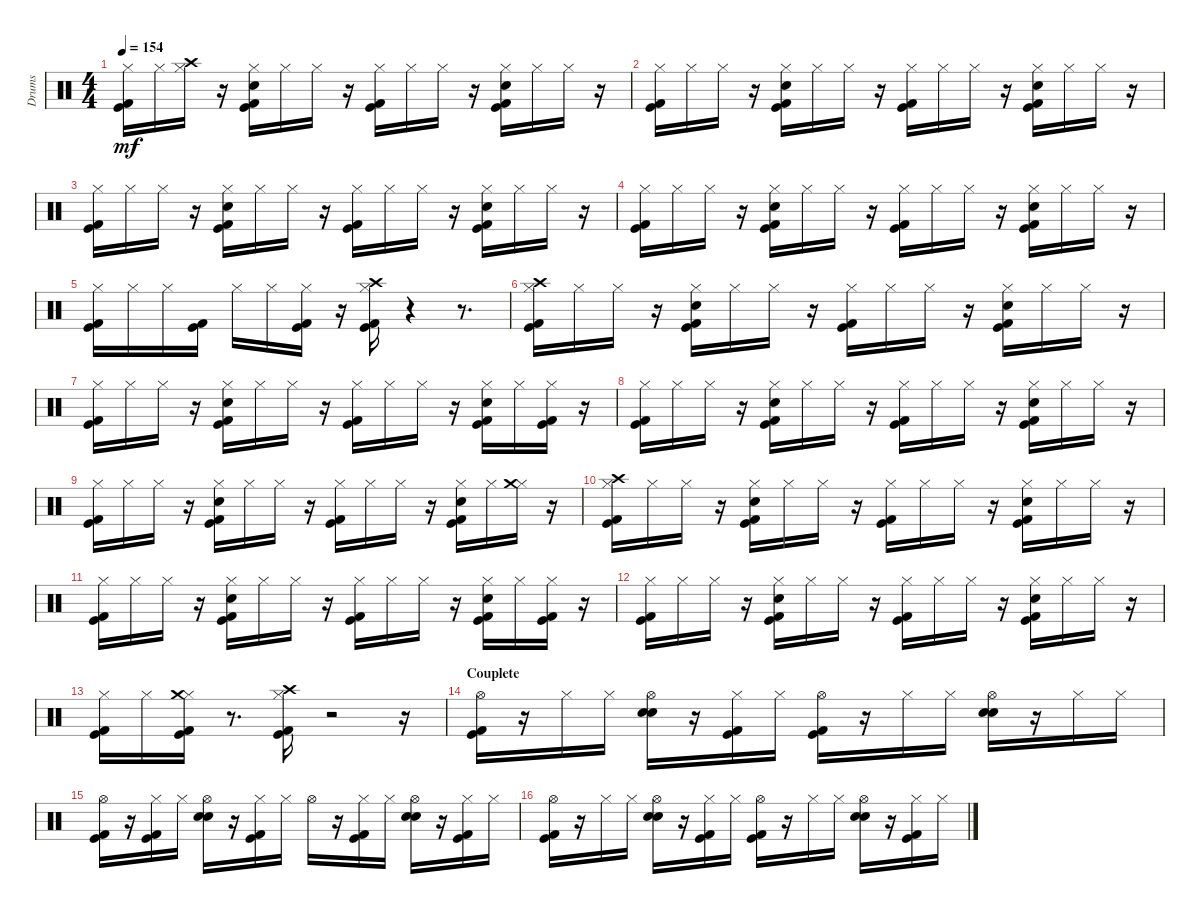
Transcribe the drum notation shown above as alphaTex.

\track ("Drums" "Drums") {instrument percussion}
\staff {score}
\articulation defaults
\ts (4 4)
\tempo 154
\clef neutral
\ks c
("Kick (hit)" "Kick (hit) 2" "Hi-Hat (closed)").16{dy mf} "Hi-Hat (closed)".16 ("Hi-Hat (closed)" "Crash high (hit)").16 r.16 ("Kick (hit)" "Kick (hit) 2" "Electric Snare (hit)" "Hi-Hat (closed)").16 "Hi-Hat (closed)".16 "Hi-Hat (closed)".16 r.16 ("Kick (hit)" "Kick (hit) 2" "Hi-Hat (closed)").16 "Hi-Hat (closed)".16 "Hi-Hat (closed)".16 r.16 ("Kick (hit)" "Kick (hit) 2" "Electric Snare (hit)" "Hi-Hat (closed)").16 "Hi-Hat (closed)".16 "Hi-Hat (closed)".16 r.16 |
("Kick (hit)" "Kick (hit) 2" "Hi-Hat (closed)").16 "Hi-Hat (closed)".16 "Hi-Hat (closed)".16 r.16 ("Kick (hit)" "Kick (hit) 2" "Electric Snare (hit)" "Hi-Hat (closed)").16 "Hi-Hat (closed)".16 "Hi-Hat (closed)".16 r.16 ("Kick (hit)" "Kick (hit) 2" "Hi-Hat (closed)").16 "Hi-Hat (closed)".16 "Hi-Hat (closed)".16 r.16 ("Kick (hit)" "Kick (hit) 2" "Electric Snare (hit)" "Hi-Hat (closed)").16 "Hi-Hat (closed)".16 "Hi-Hat (closed)".16 r.16 |
("Kick (hit)" "Kick (hit) 2" "Hi-Hat (closed)").16 "Hi-Hat (closed)".16 "Hi-Hat (closed)".16 r.16 ("Kick (hit)" "Kick (hit) 2" "Electric Snare (hit)" "Hi-Hat (closed)").16 "Hi-Hat (closed)".16 "Hi-Hat (closed)".16 r.16 ("Kick (hit)" "Kick (hit) 2" "Hi-Hat (closed)").16 "Hi-Hat (closed)".16 "Hi-Hat (closed)".16 r.16 ("Kick (hit)" "Kick (hit) 2" "Electric Snare (hit)" "Hi-Hat (closed)").16 "Hi-Hat (closed)".16 "Hi-Hat (closed)".16 r.16 |
("Kick (hit)" "Kick (hit) 2" "Hi-Hat (closed)").16 "Hi-Hat (closed)".16 "Hi-Hat (closed)".16 r.16 ("Kick (hit)" "Kick (hit) 2" "Electric Snare (hit)" "Hi-Hat (closed)").16 "Hi-Hat (closed)".16 "Hi-Hat (closed)".16 r.16 ("Kick (hit)" "Kick (hit) 2" "Hi-Hat (closed)").16 "Hi-Hat (closed)".16 "Hi-Hat (closed)".16 r.16 ("Kick (hit)" "Kick (hit) 2" "Electric Snare (hit)" "Hi-Hat (closed)").16 "Hi-Hat (closed)".16 "Hi-Hat (closed)".16 r.16 |
("Kick (hit)" "Kick (hit) 2" "Hi-Hat (closed)").16 "Hi-Hat (closed)".16 "Hi-Hat (closed)".16 ("Kick (hit)" "Kick (hit) 2").16 "Hi-Hat (closed)".16 "Hi-Hat (closed)".16 ("Kick (hit)" "Kick (hit) 2" "Hi-Hat (closed)").16 r.16 ("Kick (hit)" "Kick (hit) 2" "Hi-Hat (closed)" "Crash high (hit)").16 r.4 r.8{d} |
("Kick (hit)" "Kick (hit) 2" "Hi-Hat (closed)" "Crash high (hit)").16 "Hi-Hat (closed)".16 "Hi-Hat (closed)".16 r.16 ("Kick (hit)" "Kick (hit) 2" "Electric Snare (hit)" "Hi-Hat (closed)").16 "Hi-Hat (closed)".16 "Hi-Hat (closed)".16 r.16 ("Kick (hit)" "Kick (hit) 2" "Hi-Hat (closed)").16 "Hi-Hat (closed)".16 "Hi-Hat (closed)".16 r.16 ("Kick (hit)" "Kick (hit) 2" "Electric Snare (hit)" "Hi-Hat (closed)").16 "Hi-Hat (closed)".16 "Hi-Hat (closed)".16 r.16 |
("Kick (hit)" "Kick (hit) 2" "Hi-Hat (closed)").16 "Hi-Hat (closed)".16 "Hi-Hat (closed)".16 r.16 ("Kick (hit)" "Kick (hit) 2" "Electric Snare (hit)" "Hi-Hat (closed)").16 "Hi-Hat (closed)".16 "Hi-Hat (closed)".16 r.16 ("Kick (hit)" "Kick (hit) 2" "Hi-Hat (closed)").16 "Hi-Hat (closed)".16 "Hi-Hat (closed)".16 r.16 ("Kick (hit)" "Kick (hit) 2" "Electric Snare (hit)" "Hi-Hat (closed)").16 "Hi-Hat (closed)".16 ("Kick (hit)" "Kick (hit) 2" "Hi-Hat (closed)").16 r.16 |
("Kick (hit)" "Kick (hit) 2" "Hi-Hat (closed)").16 "Hi-Hat (closed)".16 "Hi-Hat (closed)".16 r.16 ("Kick (hit)" "Kick (hit) 2" "Electric Snare (hit)" "Hi-Hat (closed)").16 "Hi-Hat (closed)".16 "Hi-Hat (closed)".16 r.16 ("Kick (hit)" "Kick (hit) 2" "Hi-Hat (closed)").16 "Hi-Hat (closed)".16 "Hi-Hat (closed)".16 r.16 ("Kick (hit)" "Kick (hit) 2" "Electric Snare (hit)" "Hi-Hat (closed)").16 "Hi-Hat (closed)".16 "Hi-Hat (closed)".16 r.16 |
("Kick (hit)" "Kick (hit) 2" "Hi-Hat (closed)").16 "Hi-Hat (closed)".16 "Hi-Hat (closed)".16 r.16 ("Kick (hit)" "Kick (hit) 2" "Electric Snare (hit)" "Hi-Hat (closed)").16 "Hi-Hat (closed)".16 "Hi-Hat (closed)".16 r.16 ("Kick (hit)" "Kick (hit) 2" "Hi-Hat (closed)").16 "Hi-Hat (closed)".16 "Hi-Hat (closed)".16 r.16 ("Kick (hit)" "Kick (hit) 2" "Electric Snare (hit)" "Hi-Hat (closed)").16 "Hi-Hat (closed)".16 ("Hi-Hat (closed)" "Crash medium (hit)").16 r.16 |
("Kick (hit)" "Kick (hit) 2" "Hi-Hat (closed)" "Crash high (hit)").16 "Hi-Hat (closed)".16 "Hi-Hat (closed)".16 r.16 ("Kick (hit)" "Kick (hit) 2" "Electric Snare (hit)" "Hi-Hat (closed)").16 "Hi-Hat (closed)".16 "Hi-Hat (closed)".16 r.16 ("Kick (hit)" "Kick (hit) 2" "Hi-Hat (closed)").16 "Hi-Hat (closed)".16 "Hi-Hat (closed)".16 r.16 ("Kick (hit)" "Kick (hit) 2" "Electric Snare (hit)" "Hi-Hat (closed)").16 "Hi-Hat (closed)".16 "Hi-Hat (closed)".16 r.16 |
("Kick (hit)" "Kick (hit) 2" "Hi-Hat (closed)").16 "Hi-Hat (closed)".16 "Hi-Hat (closed)".16 r.16 ("Kick (hit)" "Kick (hit) 2" "Electric Snare (hit)" "Hi-Hat (closed)").16 "Hi-Hat (closed)".16 "Hi-Hat (closed)".16 r.16 ("Kick (hit)" "Kick (hit) 2" "Hi-Hat (closed)").16 "Hi-Hat (closed)".16 "Hi-Hat (closed)".16 r.16 ("Kick (hit)" "Kick (hit) 2" "Electric Snare (hit)" "Hi-Hat (closed)").16 "Hi-Hat (closed)".16 ("Kick (hit)" "Kick (hit) 2" "Hi-Hat (closed)").16 r.16 |
("Kick (hit)" "Kick (hit) 2" "Hi-Hat (closed)").16 "Hi-Hat (closed)".16 "Hi-Hat (closed)".16 r.16 ("Kick (hit)" "Kick (hit) 2" "Electric Snare (hit)" "Hi-Hat (closed)").16 "Hi-Hat (closed)".16 "Hi-Hat (closed)".16 r.16 ("Kick (hit)" "Kick (hit) 2" "Hi-Hat (closed)").16 "Hi-Hat (closed)".16 "Hi-Hat (closed)".16 r.16 ("Kick (hit)" "Kick (hit) 2" "Electric Snare (hit)" "Hi-Hat (closed)").16 "Hi-Hat (closed)".16 "Hi-Hat (closed)".16 r.16 |
("Kick (hit)" "Kick (hit) 2" "Hi-Hat (closed)").16 "Hi-Hat (closed)".16 ("Kick (hit)" "Kick (hit) 2" "Hi-Hat (closed)" "Crash medium (hit)").16 r.8{d} ("Kick (hit)" "Kick (hit) 2" "Hi-Hat (closed)" "Crash high (hit)").16 r.2 r.16 |
\section ("" "Couplete")
("Kick (hit)" "Kick (hit) 2" "Hi-Hat (open)").16 r.16 "Hi-Hat (closed)".16 "Hi-Hat (closed)".16 ("Snare (hit) 2" "Electric Snare (hit)" "Hi-Hat (open)").16 r.16 ("Kick (hit)" "Kick (hit) 2" "Hi-Hat (closed)").16 "Hi-Hat (closed)".16 ("Kick (hit)" "Kick (hit) 2" "Hi-Hat (open)").16 r.16 "Hi-Hat (closed)".16 "Hi-Hat (closed)".16 ("Snare (hit) 2" "Electric Snare (hit)" "Hi-Hat (open)").16 r.16 "Hi-Hat (closed)".16 "Hi-Hat (closed)".16 |
("Kick (hit)" "Kick (hit) 2" "Hi-Hat (open)").16 r.16 ("Kick (hit)" "Kick (hit) 2" "Hi-Hat (closed)").16 "Hi-Hat (closed)".16 ("Snare (hit) 2" "Electric Snare (hit)" "Hi-Hat (open)").16 r.16 ("Kick (hit)" "Kick (hit) 2" "Hi-Hat (closed)").16 "Hi-Hat (closed)".16 "Hi-Hat (open)".16 r.16 ("Kick (hit)" "Kick (hit) 2" "Hi-Hat (closed)").16 "Hi-Hat (closed)".16 ("Snare (hit) 2" "Electric Snare (hit)" "Hi-Hat (open)").16 r.16 ("Kick (hit)" "Kick (hit) 2" "Hi-Hat (closed)").16 "Hi-Hat (closed)".16 |
("Kick (hit)" "Kick (hit) 2" "Hi-Hat (open)").16 r.16 "Hi-Hat (closed)".16 "Hi-Hat (closed)".16 ("Snare (hit) 2" "Electric Snare (hit)" "Hi-Hat (open)").16 r.16 ("Kick (hit)" "Kick (hit) 2" "Hi-Hat (closed)").16 "Hi-Hat (closed)".16 ("Kick (hit)" "Kick (hit) 2" "Hi-Hat (open)").16 r.16 "Hi-Hat (closed)".16 "Hi-Hat (closed)".16 ("Snare (hit) 2" "Electric Snare (hit)" "Hi-Hat (open)").16 r.16 ("Kick (hit)" "Kick (hit) 2" "Hi-Hat (closed)").16 "Hi-Hat (closed)".16
